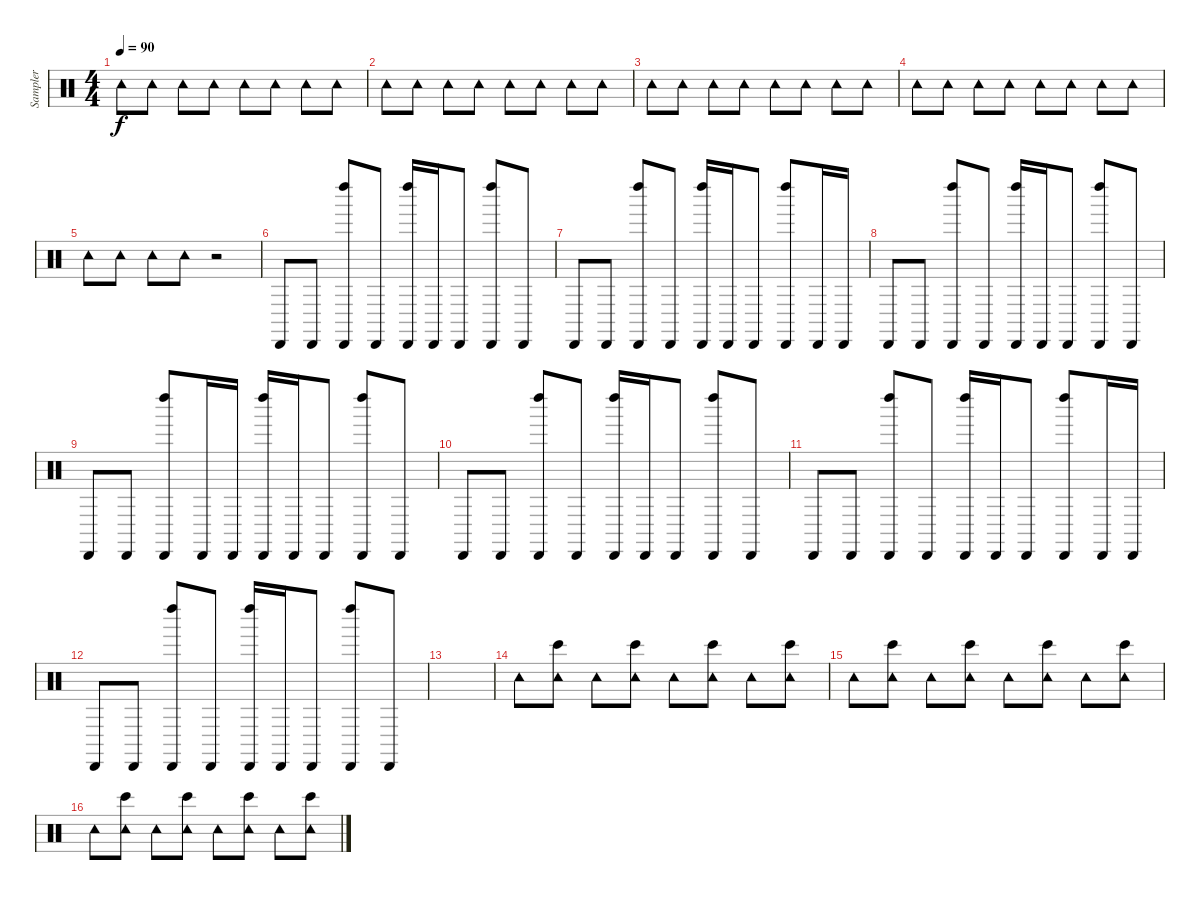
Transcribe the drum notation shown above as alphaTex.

\track ("Sampler" "Sampler") {instrument percussion}
\staff {score}
\articulation defaults
\ts (4 4)
\tempo 90
\clef neutral
\ks c "Tambourine (hit)".8{dy f} "Tambourine (hit)".8 "Tambourine (hit)".8 "Tambourine (hit)".8 "Tambourine (hit)".8 "Tambourine (hit)".8 "Tambourine (hit)".8 "Tambourine (hit)".8
|
"Tambourine (hit)".8 "Tambourine (hit)".8 "Tambourine (hit)".8 "Tambourine (hit)".8 "Tambourine (hit)".8 "Tambourine (hit)".8 "Tambourine (hit)".8 "Tambourine (hit)".8 |
"Tambourine (hit)".8 "Tambourine (hit)".8 "Tambourine (hit)".8 "Tambourine (hit)".8 "Tambourine (hit)".8 "Tambourine (hit)".8 "Tambourine (hit)".8 "Tambourine (hit)".8 |
"Tambourine (hit)".8 "Tambourine (hit)".8 "Tambourine (hit)".8 "Tambourine (hit)".8 "Tambourine (hit)".8 "Tambourine (hit)".8 "Tambourine (hit)".8 "Tambourine (hit)".8 |
"Tambourine (hit)".8 "Tambourine (hit)".8 "Tambourine (hit)".8 "Tambourine (hit)".8 r.2 |
"Cabasa (hit)".8 "Cabasa (hit)".8 ("Cabasa (hit)" "Left Maraca (hit)").8 "Cabasa (hit)".8 ("Cabasa (hit)" "Left Maraca (hit)").16 "Cabasa (hit)".16 "Cabasa (hit)".8 ("Cabasa (hit)" "Left Maraca (hit)").8 "Cabasa (hit)".8 |
"Cabasa (hit)".8 "Cabasa (hit)".8 ("Cabasa (hit)" "Left Maraca (hit)").8 "Cabasa (hit)".8 ("Cabasa (hit)" "Left Maraca (hit)").16 "Cabasa (hit)".16 "Cabasa (hit)".8 ("Cabasa (hit)" "Left Maraca (hit)").8 "Cabasa (hit)".16 "Cabasa (hit)".16 |
"Cabasa (hit)".8 "Cabasa (hit)".8 ("Cabasa (hit)" "Left Maraca (hit)").8 "Cabasa (hit)".8 ("Cabasa (hit)" "Left Maraca (hit)").16 "Cabasa (hit)".16 "Cabasa (hit)".8 ("Cabasa (hit)" "Left Maraca (hit)").8 "Cabasa (hit)".8 |
"Cabasa (hit)".8 "Cabasa (hit)".8 ("Cabasa (hit)" "Left Maraca (hit)").8 "Cabasa (hit)".16 "Cabasa (hit)".16 ("Cabasa (hit)" "Left Maraca (hit)").16 "Cabasa (hit)".16 "Cabasa (hit)".8 ("Cabasa (hit)" "Left Maraca (hit)").8 "Cabasa (hit)".8 |
"Cabasa (hit)".8 "Cabasa (hit)".8 ("Cabasa (hit)" "Left Maraca (hit)").8 "Cabasa (hit)".8 ("Cabasa (hit)" "Left Maraca (hit)").16 "Cabasa (hit)".16 "Cabasa (hit)".8 ("Cabasa (hit)" "Left Maraca (hit)").8 "Cabasa (hit)".8 |
"Cabasa (hit)".8 "Cabasa (hit)".8 ("Cabasa (hit)" "Left Maraca (hit)").8 "Cabasa (hit)".8 ("Cabasa (hit)" "Left Maraca (hit)").16 "Cabasa (hit)".16 "Cabasa (hit)".8 ("Cabasa (hit)" "Left Maraca (hit)").8 "Cabasa (hit)".16 "Cabasa (hit)".16 |
"Cabasa (hit)".8 "Cabasa (hit)".8 ("Cabasa (hit)" "Left Maraca (hit)").8 "Cabasa (hit)".8 ("Cabasa (hit)" "Left Maraca (hit)").16 "Cabasa (hit)".16 "Cabasa (hit)".8 ("Cabasa (hit)" "Left Maraca (hit)").8 "Cabasa (hit)".8 |
|
"Tambourine (hit)".8 ("Tambourine (hit)" "Bongo High (hit)").8 "Tambourine (hit)".8 ("Tambourine (hit)" "Bongo High (hit)").8 "Tambourine (hit)".8 ("Tambourine (hit)" "Bongo High (hit)").8 "Tambourine (hit)".8 ("Tambourine (hit)" "Bongo High (hit)").8 |
"Tambourine (hit)".8 ("Tambourine (hit)" "Bongo High (hit)").8 "Tambourine (hit)".8 ("Tambourine (hit)" "Bongo High (hit)").8 "Tambourine (hit)".8 ("Tambourine (hit)" "Bongo High (hit)").8 "Tambourine (hit)".8 ("Tambourine (hit)" "Bongo High (hit)").8 |
"Tambourine (hit)".8 ("Tambourine (hit)" "Bongo High (hit)").8 "Tambourine (hit)".8 ("Tambourine (hit)" "Bongo High (hit)").8 "Tambourine (hit)".8 ("Tambourine (hit)" "Bongo High (hit)").8 "Tambourine (hit)".8 ("Tambourine (hit)" "Bongo High (hit)").8
